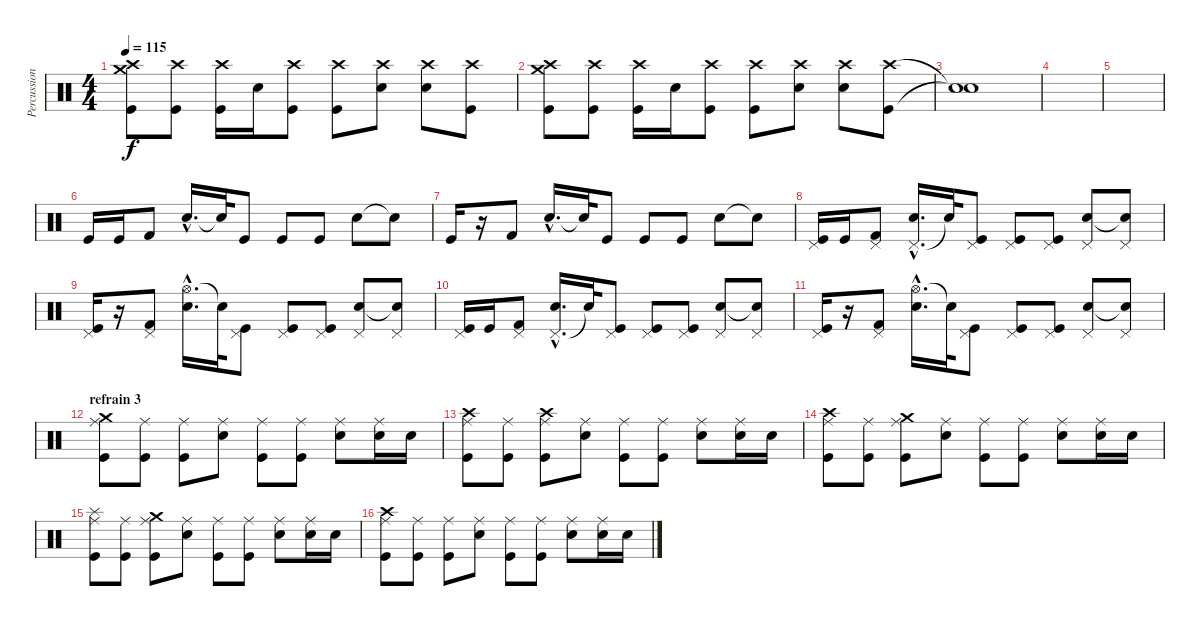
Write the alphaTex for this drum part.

\track ("Percussions" "Percussion") {instrument percussion}
\staff {score}
\articulation defaults
\ts (4 4)
\tempo 115
\clef neutral
\ks c
("Crash high (hit)" "Crash medium (hit)" "Kick (hit)").8{dy f} ("Crash high (hit)" "Kick (hit)").8 ("Crash high (hit)" "Kick (hit)").16 "Electric Snare (hit)".16 ("Crash high (hit)" "Kick (hit)").8 ("Crash high (hit)" "Kick (hit)").8 ("Crash high (hit)" "Electric Snare (hit)").8 ("Crash high (hit)" "Electric Snare (hit)").8 ("Crash high (hit)" "Kick (hit)").8 |
("Crash high (hit)" "Crash medium (hit)" "Kick (hit)").8 ("Crash high (hit)" "Kick (hit)").8 ("Crash high (hit)" "Kick (hit)").16 "Electric Snare (hit)".16 ("Crash high (hit)" "Kick (hit)").8 ("Crash high (hit)" "Kick (hit)").8 ("Crash high (hit)" "Electric Snare (hit)").8 ("Crash high (hit)" "Electric Snare (hit)").8 ("Crash high (hit)" "Kick (hit)").8 |
("Snare (hit)"{t} "Snare (hit)"{t}).1 |
|
|
"Kick (hit)".16 "Kick (hit)".16 "Kick (hit) 2".8 "Electric Snare (hit)"{hac}.16{d} "Snare (hit)"{t}.32 "Kick (hit)".8 "Kick (hit)".8 "Kick (hit)".8 "Electric Snare (hit)".8 "Snare (hit)"{t}.8 |
"Kick (hit)".16 r.16 "Kick (hit) 2".8 "Electric Snare (hit)"{hac}.16{d} "Snare (hit)"{t}.32 "Kick (hit)".8 "Kick (hit)".8 "Kick (hit)".8 "Electric Snare (hit)".8 "Snare (hit)"{t}.8 |
("Pedal Hi-Hat (hit)" "Kick (hit)").16 "Kick (hit)".16 ("Pedal Hi-Hat (hit)" "Kick (hit) 2").8 ("Pedal Hi-Hat (hit)"{hac} "Electric Snare (hit)"{hac}).16{d} "Snare (hit)"{t}.32 ("Pedal Hi-Hat (hit)" "Kick (hit)").8 ("Pedal Hi-Hat (hit)" "Kick (hit)").8 ("Pedal Hi-Hat (hit)" "Kick (hit)").8 ("Pedal Hi-Hat (hit)" "Electric Snare (hit)").8 ("Pedal Hi-Hat (hit)" "Snare (hit)"{t}).8 |
("Pedal Hi-Hat (hit)" "Kick (hit)").16 r.16 ("Pedal Hi-Hat (hit)" "Kick (hit) 2").8 ("Hi-Hat (open)"{hac} "Electric Snare (hit)"{hac}).16{d} "Snare (hit)"{t}.32 ("Pedal Hi-Hat (hit)" "Kick (hit)").8 ("Pedal Hi-Hat (hit)" "Kick (hit)").8 ("Pedal Hi-Hat (hit)" "Kick (hit)").8 ("Pedal Hi-Hat (hit)" "Electric Snare (hit)").8 ("Pedal Hi-Hat (hit)" "Snare (hit)"{t}).8 |
("Pedal Hi-Hat (hit)" "Kick (hit)").16 "Kick (hit)".16 ("Pedal Hi-Hat (hit)" "Kick (hit) 2").8 ("Pedal Hi-Hat (hit)"{hac} "Electric Snare (hit)"{hac}).16{d} "Snare (hit)"{t}.32 ("Pedal Hi-Hat (hit)" "Kick (hit)").8 ("Pedal Hi-Hat (hit)" "Kick (hit)").8 ("Pedal Hi-Hat (hit)" "Kick (hit)").8 ("Pedal Hi-Hat (hit)" "Electric Snare (hit)").8 ("Pedal Hi-Hat (hit)" "Snare (hit)"{t}).8 |
("Pedal Hi-Hat (hit)" "Kick (hit)").16 r.16 ("Pedal Hi-Hat (hit)" "Kick (hit) 2").8 ("Hi-Hat (open)"{hac} "Electric Snare (hit)"{hac}).16{d} "Snare (hit)"{t}.32 ("Pedal Hi-Hat (hit)" "Kick (hit)").8 ("Pedal Hi-Hat (hit)" "Kick (hit)").8 ("Pedal Hi-Hat (hit)" "Kick (hit)").8 ("Pedal Hi-Hat (hit)" "Electric Snare (hit)").8 ("Pedal Hi-Hat (hit)" "Snare (hit)"{t}).8 |
\section ("" "refrain 3")
("Ride (middle)" "Crash medium (hit)" "Kick (hit)").8 ("Ride (middle)" "Kick (hit)").8 ("Ride (middle)" "Kick (hit)").8 ("Ride (middle)" "Electric Snare (hit)").8 ("Ride (middle)" "Kick (hit)").8 ("Ride (middle)" "Kick (hit)").8 ("Ride (middle)" "Electric Snare (hit)").8 ("Ride (middle)" "Electric Snare (hit)").16 "Electric Snare (hit)".16 |
("Ride (middle)" "Crash high (hit)" "Kick (hit)").8 ("Ride (middle)" "Kick (hit)").8 ("Ride (middle)" "Crash high (hit)" "Kick (hit)").8 ("Ride (middle)" "Electric Snare (hit)").8 ("Ride (middle)" "Kick (hit)").8 ("Ride (middle)" "Kick (hit)").8 ("Ride (middle)" "Electric Snare (hit)").8 ("Ride (middle)" "Electric Snare (hit)").16 "Electric Snare (hit)".16 |
("Ride (middle)" "Crash high (hit)" "Kick (hit)").8 ("Ride (middle)" "Kick (hit)").8 ("Ride (middle)" "Crash medium (hit)" "Kick (hit)").8 ("Ride (middle)" "Electric Snare (hit)").8 ("Ride (middle)" "Kick (hit)").8 ("Ride (middle)" "Kick (hit)").8 ("Ride (middle)" "Electric Snare (hit)").8 ("Ride (middle)" "Electric Snare (hit)").16 "Electric Snare (hit)".16 |
("Ride (middle)" "Splash (hit)" "Kick (hit)").8 ("Ride (middle)" "Kick (hit)").8 ("Ride (middle)" "Crash medium (hit)" "Kick (hit)").8 ("Ride (middle)" "Electric Snare (hit)").8 ("Ride (middle)" "Kick (hit)").8 ("Ride (middle)" "Kick (hit)").8 ("Ride (middle)" "Electric Snare (hit)").8 ("Ride (middle)" "Electric Snare (hit)").16 "Electric Snare (hit)".16 |
("Ride (middle)" "Crash high (hit)" "Kick (hit)").8 ("Ride (middle)" "Kick (hit)").8 ("Ride (middle)" "Kick (hit)").8 ("Ride (middle)" "Electric Snare (hit)").8 ("Ride (middle)" "Kick (hit)").8 ("Ride (middle)" "Kick (hit)").8 ("Ride (middle)" "Electric Snare (hit)").8 ("Ride (middle)" "Electric Snare (hit)").16 "Electric Snare (hit)".16
